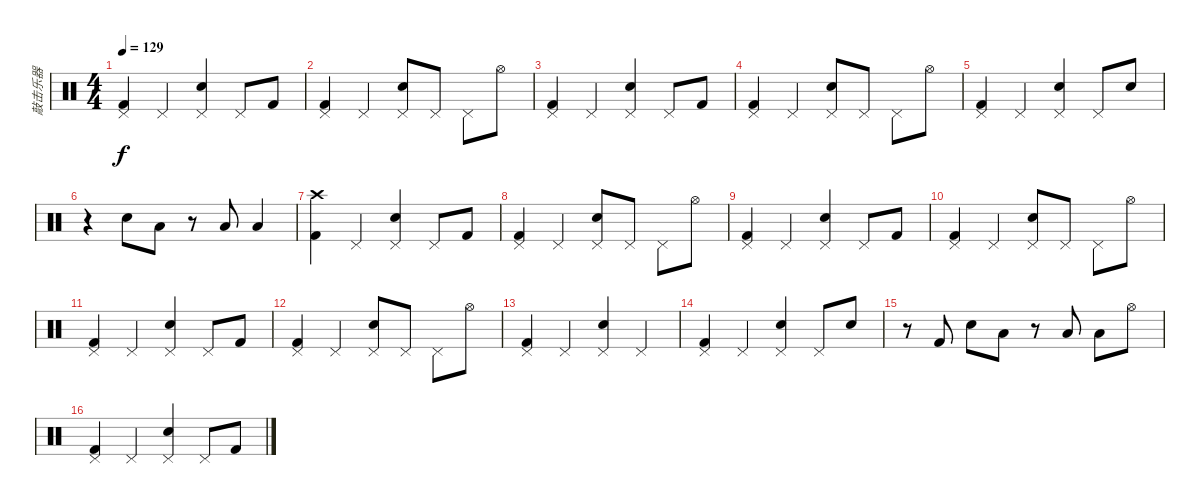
\track ("敲击乐器" "敲击乐器") {instrument percussion}
\staff {score}
\articulation defaults
\ts (4 4)
\tempo 129
\clef neutral
\ks c
("Pedal Hi-Hat (hit)" "Kick (hit) 2").4{dy f} "Pedal Hi-Hat (hit)".4 ("Pedal Hi-Hat (hit)" "Snare (hit) 2").4 "Pedal Hi-Hat (hit)".8 "Kick (hit) 2".8 |
("Pedal Hi-Hat (hit)" "Kick (hit) 2").4 "Pedal Hi-Hat (hit)".4 ("Pedal Hi-Hat (hit)" "Snare (hit) 2").8 "Pedal Hi-Hat (hit)".8 "Pedal Hi-Hat (hit)".8 "Hi-Hat (open)".8 |
("Pedal Hi-Hat (hit)" "Kick (hit) 2").4 "Pedal Hi-Hat (hit)".4 ("Pedal Hi-Hat (hit)" "Snare (hit) 2").4 "Pedal Hi-Hat (hit)".8 "Kick (hit) 2".8 |
("Pedal Hi-Hat (hit)" "Kick (hit) 2").4 "Pedal Hi-Hat (hit)".4 ("Pedal Hi-Hat (hit)" "Snare (hit) 2").8 "Pedal Hi-Hat (hit)".8 "Pedal Hi-Hat (hit)".8 "Hi-Hat (open)".8 |
("Pedal Hi-Hat (hit)" "Kick (hit) 2").4 "Pedal Hi-Hat (hit)".4 ("Pedal Hi-Hat (hit)" "Snare (hit) 2").4 "Pedal Hi-Hat (hit)".8 "Snare (hit) 2".8 |
r.4 "Snare (hit) 2".8 "Low Tom (hit)".8 r.8 "Low Tom (hit)".8 "Low Tom (hit)".4 |
("Crash high (hit)" "Kick (hit) 2").4 "Pedal Hi-Hat (hit)".4 ("Pedal Hi-Hat (hit)" "Snare (hit) 2").4 "Pedal Hi-Hat (hit)".8 "Kick (hit) 2".8 |
("Pedal Hi-Hat (hit)" "Kick (hit) 2").4 "Pedal Hi-Hat (hit)".4 ("Pedal Hi-Hat (hit)" "Snare (hit) 2").8 "Pedal Hi-Hat (hit)".8 "Pedal Hi-Hat (hit)".8 "Hi-Hat (open)".8 |
("Pedal Hi-Hat (hit)" "Kick (hit) 2").4 "Pedal Hi-Hat (hit)".4 ("Pedal Hi-Hat (hit)" "Snare (hit) 2").4 "Pedal Hi-Hat (hit)".8 "Kick (hit) 2".8 |
("Pedal Hi-Hat (hit)" "Kick (hit) 2").4 "Pedal Hi-Hat (hit)".4 ("Pedal Hi-Hat (hit)" "Snare (hit) 2").8 "Pedal Hi-Hat (hit)".8 "Pedal Hi-Hat (hit)".8 "Hi-Hat (open)".8 |
("Pedal Hi-Hat (hit)" "Kick (hit) 2").4 "Pedal Hi-Hat (hit)".4 ("Pedal Hi-Hat (hit)" "Snare (hit) 2").4 "Pedal Hi-Hat (hit)".8 "Kick (hit) 2".8 |
("Pedal Hi-Hat (hit)" "Kick (hit) 2").4 "Pedal Hi-Hat (hit)".4 ("Pedal Hi-Hat (hit)" "Snare (hit) 2").8 "Pedal Hi-Hat (hit)".8 "Pedal Hi-Hat (hit)".8 "Hi-Hat (open)".8 |
("Pedal Hi-Hat (hit)" "Kick (hit) 2").4 "Pedal Hi-Hat (hit)".4 ("Pedal Hi-Hat (hit)" "Snare (hit) 2").4 "Pedal Hi-Hat (hit)".4 |
("Pedal Hi-Hat (hit)" "Kick (hit) 2").4 "Pedal Hi-Hat (hit)".4 ("Pedal Hi-Hat (hit)" "Snare (hit) 2").4 "Pedal Hi-Hat (hit)".8 "Snare (hit) 2".8 |
r.8 "Kick (hit) 2".8 "Snare (hit) 2".8 "Low Tom (hit)".8 r.8 "Low Tom (hit)".8 "Low Tom (hit)".8 "Hi-Hat (open)".8 |
("Pedal Hi-Hat (hit)" "Kick (hit) 2").4 "Pedal Hi-Hat (hit)".4 ("Pedal Hi-Hat (hit)" "Snare (hit) 2").4 "Pedal Hi-Hat (hit)".8 "Kick (hit) 2".8
